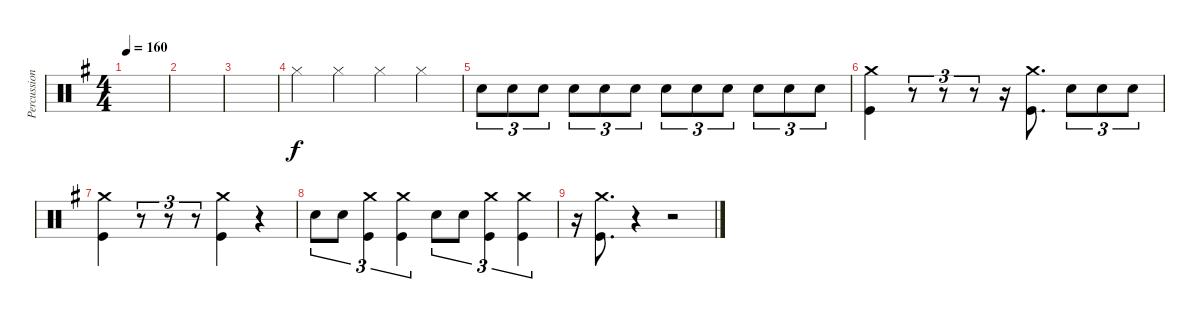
\track ("Percussions" "Percussion") {instrument percussion}
\staff {score}
\articulation defaults
\ts (4 4)
\tempo 160
\clef neutral
\ks g
|
|
|
"Hi-Hat (closed)".4 "Hi-Hat (closed)".4 "Hi-Hat (closed)".4 "Hi-Hat (closed)".4 |
"Electric Snare (hit)".8{tu (3 2)} "Electric Snare (hit)".8{tu (3 2)} "Electric Snare (hit)".8{tu (3 2)} "Electric Snare (hit)".8{tu (3 2)} "Electric Snare (hit)".8{tu (3 2)} "Electric Snare (hit)".8{tu (3 2)} "Electric Snare (hit)".8{tu (3 2)} "Electric Snare (hit)".8{tu (3 2)} "Electric Snare (hit)".8{tu (3 2)} "Electric Snare (hit)".8{tu (3 2)} "Electric Snare (hit)".8{tu (3 2)} "Electric Snare (hit)".8{tu (3 2)} |
("Kick (hit)" "Crash medium (hit)").4 r.8{tu (3 2)} r.8{tu (3 2)} r.8{tu (3 2)} r.16 ("Kick (hit)" "Crash medium (hit)").8{d} "Electric Snare (hit)".8{tu (3 2)} "Electric Snare (hit)".8{tu (3 2)} "Electric Snare (hit)".8{tu (3 2)} |
("Kick (hit)" "Crash medium (hit)").4 r.8{tu (3 2)} r.8{tu (3 2)} r.8{tu (3 2)} ("Kick (hit)" "Crash medium (hit)").4 r.4 |
"Electric Snare (hit)".8{tu (3 2)} "Electric Snare (hit)".8{tu (3 2)} ("Kick (hit)" "Crash medium (hit)").4{tu (3 2)} ("Kick (hit)" "Crash medium (hit)").4{tu (3 2)} "Electric Snare (hit)".8{tu (3 2)} "Electric Snare (hit)".8{tu (3 2)} ("Kick (hit)" "Crash medium (hit)").4{tu (3 2)} ("Kick (hit)" "Crash medium (hit)").4{tu (3 2)} |
r.16 ("Kick (hit)" "Crash medium (hit)").8{d} r.4 r.2
